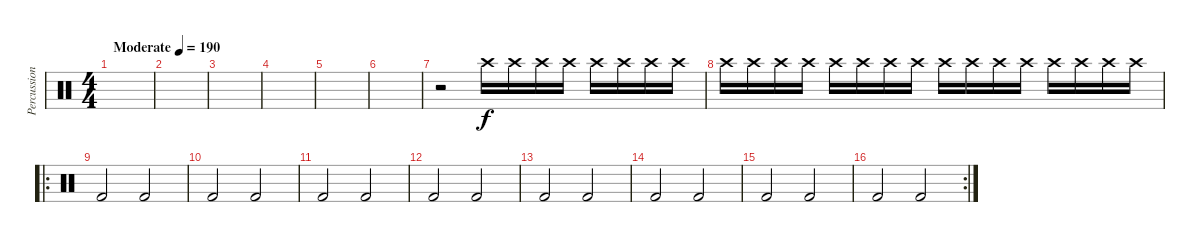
\track ("Percussion" "Percussion") {instrument percussion}
\staff {score}
\articulation defaults
\ts (4 4)
\tempo (190 "Moderate")
\clef neutral
\ks c
|
|
|
|
|
|
r.2 "Crash high (hit)".16{volume 13} "Crash high (hit)".16 "Crash high (hit)".16 "Crash high (hit)".16 "Crash high (hit)".16 "Crash high (hit)".16 "Crash high (hit)".16 "Crash high (hit)".16 |
"Crash high (hit)".16 "Crash high (hit)".16 "Crash high (hit)".16 "Crash high (hit)".16 "Crash high (hit)".16 "Crash high (hit)".16 "Crash high (hit)".16 "Crash high (hit)".16 "Crash high (hit)".16 "Crash high (hit)".16 "Crash high (hit)".16 "Crash high (hit)".16 "Crash high (hit)".16 "Crash high (hit)".16 "Crash high (hit)".16 "Crash high (hit)".16 |
\ro "Kick (hit) 2".2 "Kick (hit) 2".2
|
"Kick (hit) 2".2 "Kick (hit) 2".2 |
"Kick (hit) 2".2 "Kick (hit) 2".2 |
"Kick (hit) 2".2 "Kick (hit) 2".2 |
"Kick (hit) 2".2 "Kick (hit) 2".2 |
"Kick (hit) 2".2 "Kick (hit) 2".2 |
"Kick (hit) 2".2 "Kick (hit) 2".2 |
\rc 2 "Kick (hit) 2".2 "Kick (hit) 2".2
